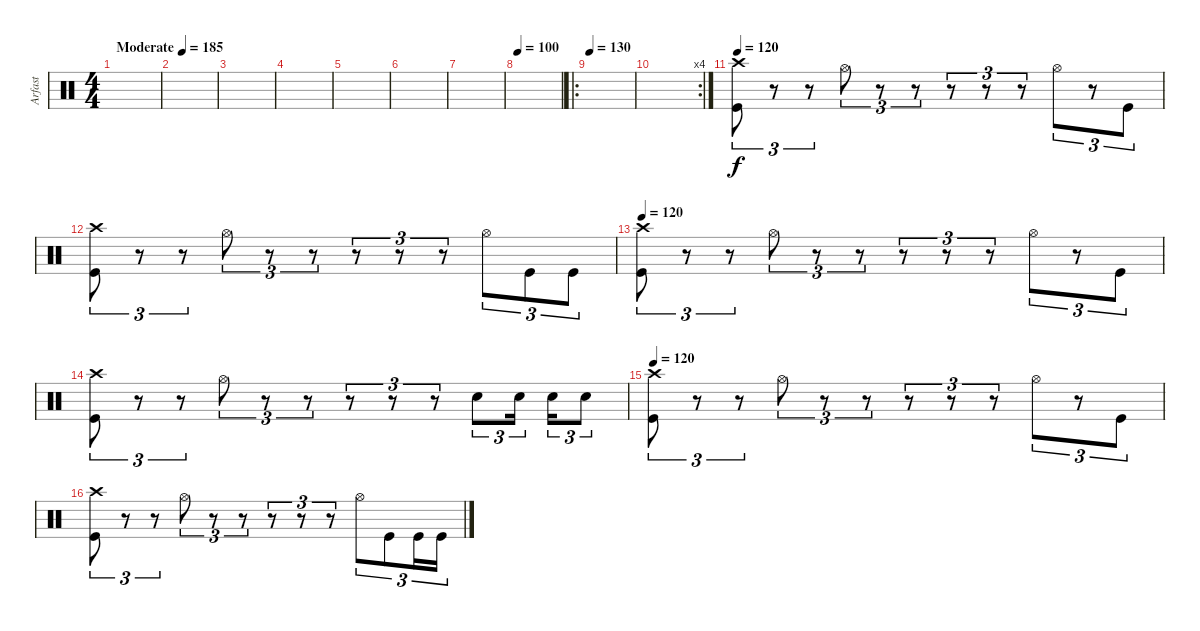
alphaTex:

\track ("Arfast" "Arfast") {instrument percussion}
\staff {score}
\articulation defaults
\ts (4 4)
\tempo (185 "Moderate")
\tempo 200
\tempo (185 "Moderate")
\clef neutral
\ks c
|
|
|
|
|
|
|
\tempo 100
|
\ro
\tempo 120
\tempo 130
|
\rc 4
|
\tempo 120
("Crash high (hit)" "Kick (hit)").8{tu (3 2)} r.8{tu (3 2)} r.8{tu (3 2)} "Hi-Hat (open)".8{tu (3 2)} r.8{tu (3 2)} r.8{tu (3 2)} r.8{tu (3 2)} r.8{tu (3 2)} r.8{tu (3 2)} "Hi-Hat (open)".8{tu (3 2)} r.8{tu (3 2)} "Kick (hit)".8{tu (3 2)} |
("Crash high (hit)" "Kick (hit)").8{tu (3 2)} r.8{tu (3 2)} r.8{tu (3 2)} "Hi-Hat (open)".8{tu (3 2)} r.8{tu (3 2)} r.8{tu (3 2)} r.8{tu (3 2)} r.8{tu (3 2)} r.8{tu (3 2)} "Hi-Hat (open)".8{tu (3 2)} "Kick (hit)".8{tu (3 2)} "Kick (hit)".8{tu (3 2)} |
\tempo 120
("Crash high (hit)" "Kick (hit)").8{tu (3 2)} r.8{tu (3 2)} r.8{tu (3 2)} "Hi-Hat (open)".8{tu (3 2)} r.8{tu (3 2)} r.8{tu (3 2)} r.8{tu (3 2)} r.8{tu (3 2)} r.8{tu (3 2)} "Hi-Hat (open)".8{tu (3 2)} r.8{tu (3 2)} "Kick (hit)".8{tu (3 2)} |
("Crash high (hit)" "Kick (hit)").8{tu (3 2)} r.8{tu (3 2)} r.8{tu (3 2)} "Hi-Hat (open)".8{tu (3 2)} r.8{tu (3 2)} r.8{tu (3 2)} r.8{tu (3 2)} r.8{tu (3 2)} r.8{tu (3 2)} "Snare (hit) 2".8{tu (3 2)} "Snare (hit) 2".16{tu (3 2) beam splitsecondary} "Snare (hit) 2".16{tu (3 2)} "Snare (hit) 2".8{tu (3 2)} |
\tempo 120
("Crash high (hit)" "Kick (hit)").8{tu (3 2)} r.8{tu (3 2)} r.8{tu (3 2)} "Hi-Hat (open)".8{tu (3 2)} r.8{tu (3 2)} r.8{tu (3 2)} r.8{tu (3 2)} r.8{tu (3 2)} r.8{tu (3 2)} "Hi-Hat (open)".8{tu (3 2)} r.8{tu (3 2)} "Kick (hit)".8{tu (3 2)} |
("Crash high (hit)" "Kick (hit)").8{tu (3 2)} r.8{tu (3 2)} r.8{tu (3 2)} "Hi-Hat (open)".8{tu (3 2)} r.8{tu (3 2)} r.8{tu (3 2)} r.8{tu (3 2)} r.8{tu (3 2)} r.8{tu (3 2)} "Hi-Hat (open)".8{tu (3 2)} "Kick (hit)".8{tu (3 2)} "Kick (hit)".16{tu (3 2)} "Kick (hit)".16{tu (3 2)}
